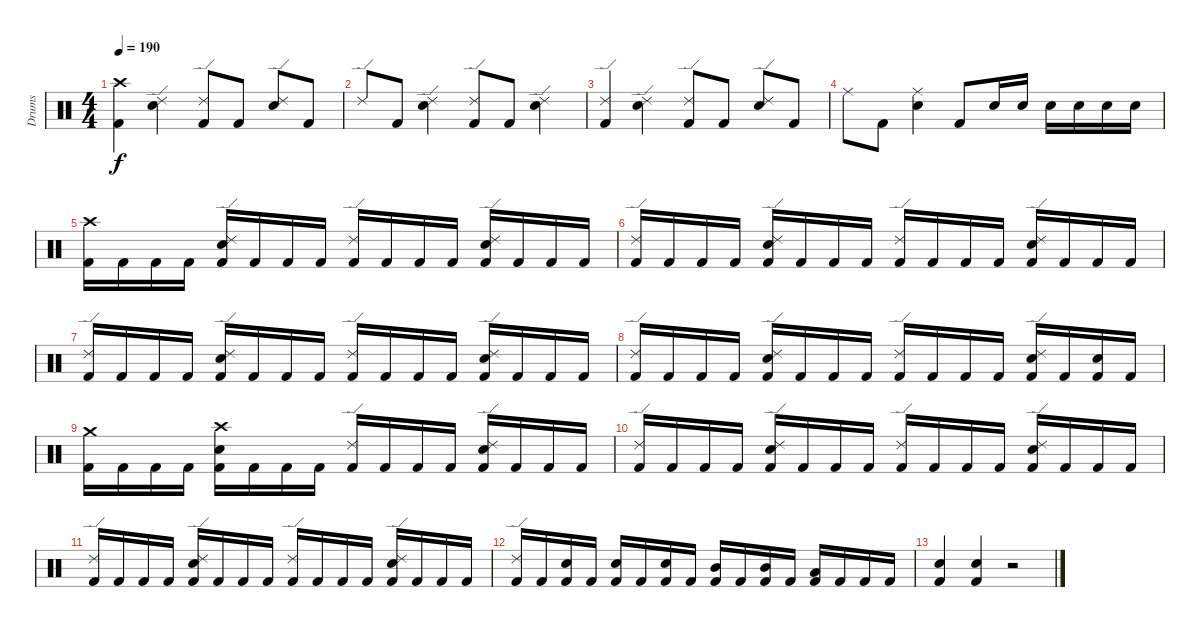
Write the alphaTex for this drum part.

\track ("Drums" "Drums") {instrument percussion}
\staff {score}
\articulation defaults
\ts (4 4)
\tempo 190
\clef neutral
\ks c
("Crash high (hit)" "Kick (hit) 2").4{dy f} ("Ride (edge) 2" "Snare (hit) 2").4 ("Ride (edge) 2" "Kick (hit) 2").8 "Kick (hit) 2".8 ("Ride (edge) 2" "Snare (hit) 2").8 "Kick (hit) 2".8 |
"Ride (edge) 2".8 "Kick (hit) 2".8 ("Ride (edge) 2" "Snare (hit) 2").4 ("Ride (edge) 2" "Kick (hit) 2").8 "Kick (hit) 2".8 ("Ride (edge) 2" "Snare (hit) 2").4 |
("Ride (edge) 2" "Kick (hit) 2").4 ("Ride (edge) 2" "Snare (hit) 2").4 ("Ride (edge) 2" "Kick (hit) 2").8 "Kick (hit) 2".8 ("Ride (edge) 2" "Snare (hit) 2").8 "Kick (hit) 2".8 |
"Ride (middle)".8 "Kick (hit) 2".8 ("Ride (middle)" "Snare (hit) 2").4 "Kick (hit) 2".8 "Snare (hit) 2".16 "Snare (hit) 2".16 "Snare (hit) 2".16 "Snare (hit) 2".16 "Snare (hit) 2".16 "Snare (hit) 2".16 |
("Crash high (hit)" "Kick (hit) 2").16 "Kick (hit) 2".16 "Kick (hit) 2".16 "Kick (hit) 2".16 ("Ride (edge) 2" "Snare (hit) 2" "Kick (hit) 2").16 "Kick (hit) 2".16 "Kick (hit) 2".16 "Kick (hit) 2".16 ("Ride (edge) 2" "Kick (hit) 2").16 "Kick (hit) 2".16 "Kick (hit) 2".16 "Kick (hit) 2".16 ("Ride (edge) 2" "Snare (hit) 2" "Kick (hit) 2").16 "Kick (hit) 2".16 "Kick (hit) 2".16 "Kick (hit) 2".16 |
("Ride (edge) 2" "Kick (hit) 2").16 "Kick (hit) 2".16 "Kick (hit) 2".16 "Kick (hit) 2".16 ("Ride (edge) 2" "Snare (hit) 2" "Kick (hit) 2").16 "Kick (hit) 2".16 "Kick (hit) 2".16 "Kick (hit) 2".16 ("Ride (edge) 2" "Kick (hit) 2").16 "Kick (hit) 2".16 "Kick (hit) 2".16 "Kick (hit) 2".16 ("Ride (edge) 2" "Snare (hit) 2" "Kick (hit) 2").16 "Kick (hit) 2".16 "Kick (hit) 2".16 "Kick (hit) 2".16 |
("Ride (edge) 2" "Kick (hit) 2").16 "Kick (hit) 2".16 "Kick (hit) 2".16 "Kick (hit) 2".16 ("Ride (edge) 2" "Snare (hit) 2" "Kick (hit) 2").16 "Kick (hit) 2".16 "Kick (hit) 2".16 "Kick (hit) 2".16 ("Ride (edge) 2" "Kick (hit) 2").16 "Kick (hit) 2".16 "Kick (hit) 2".16 "Kick (hit) 2".16 ("Ride (edge) 2" "Snare (hit) 2" "Kick (hit) 2").16 "Kick (hit) 2".16 "Kick (hit) 2".16 "Kick (hit) 2".16 |
("Ride (edge) 2" "Kick (hit) 2").16 "Kick (hit) 2".16 "Kick (hit) 2".16 "Kick (hit) 2".16 ("Ride (edge) 2" "Snare (hit) 2" "Kick (hit) 2").16 "Kick (hit) 2".16 "Kick (hit) 2".16 "Kick (hit) 2".16 ("Ride (edge) 2" "Kick (hit) 2").16 "Kick (hit) 2".16 "Kick (hit) 2".16 "Kick (hit) 2".16 ("Ride (edge) 2" "Snare (hit) 2" "Kick (hit) 2").16 "Kick (hit) 2".16 ("Snare (hit) 2" "Kick (hit) 2").16 "Kick (hit) 2".16 |
("Crash medium (hit)" "Kick (hit) 2").16 "Kick (hit) 2".16 "Kick (hit) 2".16 "Kick (hit) 2".16 ("Crash high (hit)" "Snare (hit) 2" "Kick (hit) 2").16 "Kick (hit) 2".16 "Kick (hit) 2".16 "Kick (hit) 2".16 ("Ride (edge) 2" "Kick (hit) 2").16 "Kick (hit) 2".16 "Kick (hit) 2".16 "Kick (hit) 2".16 ("Ride (edge) 2" "Snare (hit) 2" "Kick (hit) 2").16 "Kick (hit) 2".16 "Kick (hit) 2".16 "Kick (hit) 2".16 |
("Ride (edge) 2" "Kick (hit) 2").16 "Kick (hit) 2".16 "Kick (hit) 2".16 "Kick (hit) 2".16 ("Ride (edge) 2" "Snare (hit) 2" "Kick (hit) 2").16 "Kick (hit) 2".16 "Kick (hit) 2".16 "Kick (hit) 2".16 ("Ride (edge) 2" "Kick (hit) 2").16 "Kick (hit) 2".16 "Kick (hit) 2".16 "Kick (hit) 2".16 ("Ride (edge) 2" "Snare (hit) 2" "Kick (hit) 2").16 "Kick (hit) 2".16 "Kick (hit) 2".16 "Kick (hit) 2".16 |
("Ride (edge) 2" "Kick (hit) 2").16 "Kick (hit) 2".16 "Kick (hit) 2".16 "Kick (hit) 2".16 ("Ride (edge) 2" "Snare (hit) 2" "Kick (hit) 2").16 "Kick (hit) 2".16 "Kick (hit) 2".16 "Kick (hit) 2".16 ("Ride (edge) 2" "Kick (hit) 2").16 "Kick (hit) 2".16 "Kick (hit) 2".16 "Kick (hit) 2".16 ("Ride (edge) 2" "Snare (hit) 2" "Kick (hit) 2").16 "Kick (hit) 2".16 "Kick (hit) 2".16 "Kick (hit) 2".16 |
("Ride (edge) 2" "Kick (hit) 2").16 "Kick (hit) 2".16 ("Snare (hit) 2" "Kick (hit) 2").16 "Kick (hit) 2".16 ("Snare (hit) 2" "Kick (hit) 2").16 "Kick (hit) 2".16 ("Snare (hit) 2" "Kick (hit) 2").16 "Kick (hit) 2".16 ("Mid Tom (hit)" "Kick (hit) 2").16 "Kick (hit) 2".16 ("Mid Tom (hit)" "Kick (hit) 2").16 "Kick (hit) 2".16 ("Low Tom (hit)" "Kick (hit) 2").16 "Kick (hit) 2".16 "Kick (hit) 2".16 "Kick (hit) 2".16 |
("Snare (hit) 2" "Kick (hit) 2").4 ("Snare (hit) 2" "Kick (hit) 2").4 r.2
